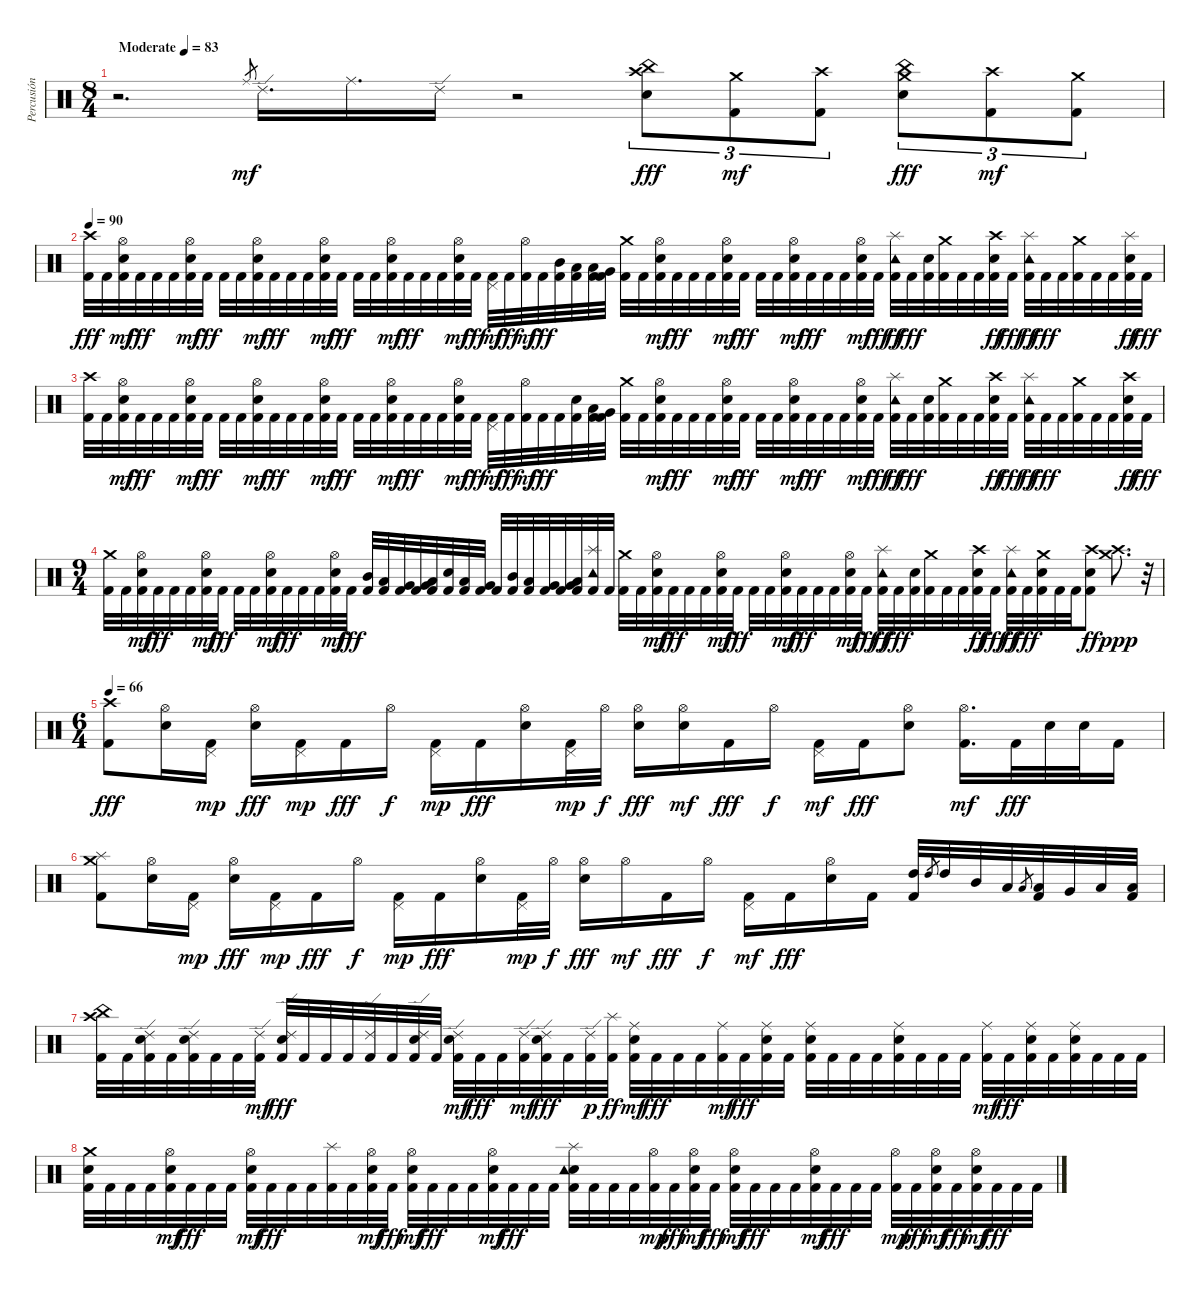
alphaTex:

\track ("Percusión" "Percusión") {instrument percussion}
\staff {score}
\articulation defaults
\ts (8 4)
\tempo (83 "Moderate")
\clef neutral
\ks c
r.2{d dy mf} "Ride (middle)".8{gr} "Ride (edge) 2".16{d} "Ride (middle)".16{d} "Ride (edge) 2".16 r.2 ("Electric Snare (hit)" "Crash high (hit)" "China (hit)").8{tu (3 2) dy fff} ("Kick (hit) 2" "Crash medium (hit)").8{tu (3 2) dy mf} ("Kick (hit) 2" "Crash high (hit)").8{tu (3 2)} ("Electric Snare (hit)" "Crash medium (hit)" "China (hit)").8{tu (3 2) dy fff} ("Kick (hit) 2" "Crash high (hit)").8{tu (3 2) dy mf} ("Kick (hit) 2" "Crash medium (hit)").8{tu (3 2)} |
\tempo 90
("Kick (hit) 2" "Crash high (hit)").32{dy fff} "Kick (hit) 2".32 ("Kick (hit) 2" "Electric Snare (hit)" "Hi-Hat (open)").32{dy mf} "Kick (hit) 2".32{dy fff} "Kick (hit) 2".32 "Kick (hit) 2".32 ("Kick (hit) 2" "Electric Snare (hit)" "Hi-Hat (open)").32{dy mf} "Kick (hit) 2".32{dy fff} "Kick (hit) 2".32 "Kick (hit) 2".32 ("Kick (hit) 2" "Electric Snare (hit)" "Hi-Hat (open)").32{dy mf} "Kick (hit) 2".32{dy fff} "Kick (hit) 2".32 "Kick (hit) 2".32 ("Kick (hit) 2" "Electric Snare (hit)" "Hi-Hat (open)").32{dy mf} "Kick (hit) 2".32{dy fff} "Kick (hit) 2".32 "Kick (hit) 2".32 ("Kick (hit) 2" "Electric Snare (hit)" "Hi-Hat (open)").32{dy mf} "Kick (hit) 2".32{dy fff} "Kick (hit) 2".32 "Kick (hit) 2".32 ("Kick (hit) 2" "Electric Snare (hit)" "Hi-Hat (open)").32{dy mf} "Kick (hit) 2".32{dy fff} ("Kick (hit) 2" "Pedal Hi-Hat (hit)").32{dy mf} "Kick (hit) 2".32{dy fff} ("Kick (hit) 2" "Hi-Hat (open)").32{dy mf} "Kick (hit) 2".32{dy fff} ("Kick (hit) 2" "Mid Tom (hit)").32 ("Kick (hit) 2" "Low Tom (hit)").32 ("Kick (hit) 2" "Low Tom (hit)").32 ("Kick (hit) 2" "Very Low Tom (hit)").32 ("Kick (hit) 2" "Crash medium (hit)").32 "Kick (hit) 2".32 ("Kick (hit) 2" "Electric Snare (hit)" "Hi-Hat (open)").32{dy mf} "Kick (hit) 2".32{dy fff} "Kick (hit) 2".32 "Kick (hit) 2".32 ("Kick (hit) 2" "Electric Snare (hit)" "Hi-Hat (open)").32{dy mf} "Kick (hit) 2".32{dy fff} "Kick (hit) 2".32 "Kick (hit) 2".32 ("Kick (hit) 2" "Electric Snare (hit)" "Hi-Hat (open)").32{dy mf} "Kick (hit) 2".32{dy fff} "Kick (hit) 2".32 "Kick (hit) 2".32 ("Kick (hit) 2" "Electric Snare (hit)" "Hi-Hat (open)").32{dy mf} "Kick (hit) 2".32{dy fff} ("Kick (hit) 2" "Splash (hit)" "Tambourine (hit)").32{dy ff} "Kick (hit) 2".32{dy fff} ("Kick (hit) 2" "Electric Snare (hit)").32 ("Kick (hit) 2" "Crash medium (hit)").32 "Kick (hit) 2".32 "Kick (hit) 2".32 ("Kick (hit) 2" "Electric Snare (hit)" "Crash high (hit)").32{dy ff} "Kick (hit) 2".32{dy fff} ("Kick (hit) 2" "Splash (hit)" "Tambourine (hit)").32{dy ff} "Kick (hit) 2".32{dy fff} "Kick (hit) 2".32 ("Kick (hit) 2" "Crash medium (hit)").32 "Kick (hit) 2".32 "Kick (hit) 2".32 ("Kick (hit) 2" "Electric Snare (hit)" "Splash (hit)").32{dy ff} "Kick (hit) 2".32{dy fff} |
("Kick (hit) 2" "Crash high (hit)").32 "Kick (hit) 2".32 ("Kick (hit) 2" "Electric Snare (hit)" "Hi-Hat (open)").32{dy mf} "Kick (hit) 2".32{dy fff} "Kick (hit) 2".32 "Kick (hit) 2".32 ("Kick (hit) 2" "Electric Snare (hit)" "Hi-Hat (open)").32{dy mf} "Kick (hit) 2".32{dy fff} "Kick (hit) 2".32 "Kick (hit) 2".32 ("Kick (hit) 2" "Electric Snare (hit)" "Hi-Hat (open)").32{dy mf} "Kick (hit) 2".32{dy fff} "Kick (hit) 2".32 "Kick (hit) 2".32 ("Kick (hit) 2" "Electric Snare (hit)" "Hi-Hat (open)").32{dy mf} "Kick (hit) 2".32{dy fff} "Kick (hit) 2".32 "Kick (hit) 2".32 ("Kick (hit) 2" "Electric Snare (hit)" "Hi-Hat (open)").32{dy mf} "Kick (hit) 2".32{dy fff} "Kick (hit) 2".32 "Kick (hit) 2".32 ("Kick (hit) 2" "Electric Snare (hit)" "Hi-Hat (open)").32{dy mf} "Kick (hit) 2".32{dy fff} ("Kick (hit) 2" "Pedal Hi-Hat (hit)").32{dy mf} "Kick (hit) 2".32{dy fff} ("Kick (hit) 2" "Hi-Hat (open)").32{dy mf} "Kick (hit) 2".32{dy fff} "Kick (hit) 2".32 ("Kick (hit) 2" "Electric Snare (hit)").32 ("Kick (hit) 2" "Low Tom (hit)").32 ("Kick (hit) 2" "Very Low Tom (hit)").32 ("Kick (hit) 2" "Crash medium (hit)").32 "Kick (hit) 2".32 ("Kick (hit) 2" "Electric Snare (hit)" "Hi-Hat (open)").32{dy mf} "Kick (hit) 2".32{dy fff} "Kick (hit) 2".32 "Kick (hit) 2".32 ("Kick (hit) 2" "Electric Snare (hit)" "Hi-Hat (open)").32{dy mf} "Kick (hit) 2".32{dy fff} "Kick (hit) 2".32 "Kick (hit) 2".32 ("Kick (hit) 2" "Electric Snare (hit)" "Hi-Hat (open)").32{dy mf} "Kick (hit) 2".32{dy fff} "Kick (hit) 2".32 "Kick (hit) 2".32 ("Kick (hit) 2" "Electric Snare (hit)" "Hi-Hat (open)").32{dy mf} "Kick (hit) 2".32{dy fff} ("Kick (hit) 2" "Splash (hit)" "Tambourine (hit)").32{dy ff} "Kick (hit) 2".32{dy fff} ("Kick (hit) 2" "Electric Snare (hit)").32 ("Kick (hit) 2" "Crash medium (hit)").32 "Kick (hit) 2".32 "Kick (hit) 2".32 ("Kick (hit) 2" "Electric Snare (hit)" "Crash high (hit)").32{dy ff} "Kick (hit) 2".32{dy fff} ("Kick (hit) 2" "Splash (hit)" "Tambourine (hit)").32{dy ff} "Kick (hit) 2".32{dy fff} "Kick (hit) 2".32 ("Kick (hit) 2" "Crash medium (hit)").32 "Kick (hit) 2".32 "Kick (hit) 2".32 ("Kick (hit) 2" "Electric Snare (hit)" "Crash high (hit)").32{dy ff} "Kick (hit) 2".32{dy fff} |
\ts (9 4)
("Kick (hit) 2" "Crash medium (hit)").32 "Kick (hit) 2".32 ("Kick (hit) 2" "Electric Snare (hit)" "Hi-Hat (open)").32{dy mf} "Kick (hit) 2".32{dy fff} "Kick (hit) 2".32 "Kick (hit) 2".32 ("Kick (hit) 2" "Electric Snare (hit)" "Hi-Hat (open)").32{dy mf} "Kick (hit) 2".32{dy fff} "Kick (hit) 2".32 "Kick (hit) 2".32 ("Kick (hit) 2" "Electric Snare (hit)" "Hi-Hat (open)").32{dy mf} "Kick (hit) 2".32{dy fff} "Kick (hit) 2".32 "Kick (hit) 2".32 ("Kick (hit) 2" "Electric Snare (hit)" "Hi-Hat (open)").32{dy mf} "Kick (hit) 2".32{dy fff} ("Kick (hit) 2" "Mid Tom (hit)").32 ("Kick (hit) 2" "Low Tom (hit)").32 ("Kick (hit) 2" "Very Low Tom (hit)").32 ("Kick (hit) 2" "Very Low Tom (hit)").32 ("Kick (hit) 2" "Low Floor Tom (hit)").32 ("Kick (hit) 2" "Electric Snare (hit)").32 ("Kick (hit) 2" "Low Tom (hit)").32 ("Kick (hit) 2" "Very Low Tom (hit)").32 "Kick (hit) 2".32 ("Kick (hit) 2" "Mid Tom (hit)").32 ("Kick (hit) 2" "Low Tom (hit)").32 ("Kick (hit) 2" "Very Low Tom (hit)").32 ("Kick (hit) 2" "Very Low Tom (hit)").32 ("Kick (hit) 2" "Low Floor Tom (hit)").32 ("Kick (hit) 2" "Splash (hit)" "Tambourine (hit)").32 "Kick (hit) 2".32 ("Kick (hit) 2" "Crash medium (hit)").32 "Kick (hit) 2".32 ("Kick (hit) 2" "Electric Snare (hit)" "Hi-Hat (open)").32{dy mf} "Kick (hit) 2".32{dy fff} "Kick (hit) 2".32 "Kick (hit) 2".32 ("Kick (hit) 2" "Electric Snare (hit)" "Hi-Hat (open)").32{dy mf} "Kick (hit) 2".32{dy fff} "Kick (hit) 2".32 "Kick (hit) 2".32 ("Kick (hit) 2" "Electric Snare (hit)" "Hi-Hat (open)").32{dy mf} "Kick (hit) 2".32{dy fff} "Kick (hit) 2".32 "Kick (hit) 2".32 ("Kick (hit) 2" "Electric Snare (hit)" "Hi-Hat (open)").32{dy mf} "Kick (hit) 2".32{dy fff} ("Kick (hit) 2" "Splash (hit)" "Tambourine (hit)").32{dy ff} "Kick (hit) 2".32{dy fff} ("Kick (hit) 2" "Electric Snare (hit)").32 ("Kick (hit) 2" "Crash medium (hit)").32 "Kick (hit) 2".32 "Kick (hit) 2".32 ("Kick (hit) 2" "Electric Snare (hit)" "Crash high (hit)").32{dy ff} "Kick (hit) 2".32{dy fff} ("Kick (hit) 2" "Splash (hit)" "Tambourine (hit)").32{dy ff} "Kick (hit) 2".32{dy fff} ("Kick (hit) 2" "Electric Snare (hit)" "Crash medium (hit)").32 "Kick (hit) 2".32 "Kick (hit) 2".32 ("Kick (hit) 2" "Electric Snare (hit)" "Crash high (hit)").8{dy ff} ("Crash high (hit)" "Crash medium (hit)").8{d dy ppp} r.32 |
\ts (6 4)
\tempo 66
("Kick (hit) 2" "Crash high (hit)").8{dy fff} ("Electric Snare (hit)" "Hi-Hat (open)").16 ("Kick (hit) 2" "Pedal Hi-Hat (hit)").16{dy mp} ("Electric Snare (hit)" "Hi-Hat (open)").16{dy fff} ("Kick (hit) 2" "Pedal Hi-Hat (hit)").16{dy mp} "Kick (hit) 2".16{dy fff} "Hi-Hat (open)".16{dy f} ("Kick (hit) 2" "Pedal Hi-Hat (hit)").16{dy mp} "Kick (hit) 2".16{dy fff} ("Electric Snare (hit)" "Hi-Hat (open)").16 ("Kick (hit) 2" "Pedal Hi-Hat (hit)").32{dy mp} "Hi-Hat (open)".32{dy f} ("Electric Snare (hit)" "Hi-Hat (open)").16{dy fff} ("Electric Snare (hit)" "Hi-Hat (open)").16{dy mf} "Kick (hit) 2".16{dy fff} "Hi-Hat (open)".16{dy f} ("Kick (hit) 2" "Pedal Hi-Hat (hit)").16{dy mf} "Kick (hit) 2".16{dy fff} ("Electric Snare (hit)" "Hi-Hat (open)").8 ("Kick (hit) 2" "Hi-Hat (open)").16{d dy mf} "Kick (hit) 2".32{dy fff} "Electric Snare (hit)".32 "Electric Snare (hit)".32 "Kick (hit) 2".16 |
("Kick (hit) 2" "Crash medium (hit)" "Splash (hit)").8 ("Electric Snare (hit)" "Hi-Hat (open)").16 ("Kick (hit) 2" "Pedal Hi-Hat (hit)").16{dy mp} ("Electric Snare (hit)" "Hi-Hat (open)").16{dy fff} ("Kick (hit) 2" "Pedal Hi-Hat (hit)").16{dy mp} "Kick (hit) 2".16{dy fff} "Hi-Hat (open)".16{dy f} ("Kick (hit) 2" "Pedal Hi-Hat (hit)").16{dy mp} "Kick (hit) 2".16{dy fff} ("Electric Snare (hit)" "Hi-Hat (open)").16 ("Kick (hit) 2" "Pedal Hi-Hat (hit)").32{dy mp} "Hi-Hat (open)".32{dy f} ("Electric Snare (hit)" "Hi-Hat (open)").16{dy fff} "Hi-Hat (open)".16{dy mf} "Kick (hit) 2".16{dy fff} "Hi-Hat (open)".16{dy f} ("Kick (hit) 2" "Pedal Hi-Hat (hit)").16{dy mf} "Kick (hit) 2".16{dy fff} ("Electric Snare (hit)" "Hi-Hat (open)").16 "Kick (hit) 2".16 ("Kick (hit) 2" "High Tom (hit)").32 "High Tom (hit)".8{gr} "High Tom (hit)".32 "Mid Tom (hit)".32 "Low Tom (hit)".32 "Low Tom (hit)".8{gr} ("Kick (hit) 2" "Low Tom (hit)").32 "Very Low Tom (hit)".32 "Low Floor Tom (hit)".32 ("Kick (hit) 2" "Low Floor Tom (hit)").32 |
("Kick (hit) 2" "Crash high (hit)" "China (hit)").32 "Kick (hit) 2".32 ("Kick (hit) 2" "Electric Snare (hit)" "Ride (edge) 2").32 "Kick (hit) 2".32 ("Kick (hit) 2" "Electric Snare (hit)" "Ride (edge) 2").32 "Kick (hit) 2".32 "Kick (hit) 2".32 ("Kick (hit) 2" "Ride (edge) 2").32{dy mf} ("Kick (hit) 2" "Electric Snare (hit)" "Ride (edge) 2").32{dy fff} "Kick (hit) 2".32 "Kick (hit) 2".32 "Kick (hit) 2".32 ("Kick (hit) 2" "Ride (edge) 2").32 "Kick (hit) 2".32 ("Kick (hit) 2" "Electric Snare (hit)" "Ride (edge) 2").32 "Kick (hit) 2".32 ("Kick (hit) 2" "Electric Snare (hit)" "Ride (edge) 2").32{dy mf} "Kick (hit) 2".32{dy fff} "Kick (hit) 2".32 ("Kick (hit) 2" "Ride (edge) 2").32{dy mf} ("Kick (hit) 2" "Electric Snare (hit)" "Ride (edge) 2").32{dy fff} "Kick (hit) 2".32 ("Kick (hit) 2" "Ride (edge) 2").32{dy p} ("Kick (hit) 2" "Splash (hit)").32{dy ff} ("Kick (hit) 2" "Electric Snare (hit)" "Ride (middle)").32{dy mf} "Kick (hit) 2".32{dy fff} "Kick (hit) 2".32 "Kick (hit) 2".32 ("Kick (hit) 2" "Ride (middle)").32{dy mf} "Kick (hit) 2".32{dy fff} ("Kick (hit) 2" "Electric Snare (hit)" "Ride (middle)").32 "Kick (hit) 2".32 ("Kick (hit) 2" "Electric Snare (hit)" "Ride (middle)").32 "Kick (hit) 2".32 "Kick (hit) 2".32 "Kick (hit) 2".32 ("Kick (hit) 2" "Electric Snare (hit)" "Ride (middle)").32 "Kick (hit) 2".32 "Kick (hit) 2".32 "Kick (hit) 2".32 ("Kick (hit) 2" "Ride (middle)").32{dy mf} "Kick (hit) 2".32{dy fff} ("Kick (hit) 2" "Electric Snare (hit)" "Ride (middle)").32 "Kick (hit) 2".32 ("Kick (hit) 2" "Electric Snare (hit)" "Ride (middle)").32 "Kick (hit) 2".32 "Kick (hit) 2".32 "Kick (hit) 2".32 |
("Kick (hit) 2" "Electric Snare (hit)" "Crash medium (hit)").32 "Kick (hit) 2".32 "Kick (hit) 2".32 "Kick (hit) 2".32 ("Kick (hit) 2" "Electric Snare (hit)" "Hi-Hat (open)").32{dy mf} "Kick (hit) 2".32{dy fff} "Kick (hit) 2".32 "Kick (hit) 2".32 ("Kick (hit) 2" "Electric Snare (hit)" "Hi-Hat (open)").32{dy mf} "Kick (hit) 2".32{dy fff} "Kick (hit) 2".32 "Kick (hit) 2".32 ("Kick (hit) 2" "Splash (hit)").32 "Kick (hit) 2".32 ("Kick (hit) 2" "Electric Snare (hit)" "Hi-Hat (open)").32{dy mf} "Kick (hit) 2".32{dy fff} ("Kick (hit) 2" "Electric Snare (hit)" "Hi-Hat (open)").32{dy mf} "Kick (hit) 2".32{dy fff} "Kick (hit) 2".32 "Kick (hit) 2".32 ("Kick (hit) 2" "Electric Snare (hit)" "Hi-Hat (open)").32{dy mf} "Kick (hit) 2".32{dy fff} "Kick (hit) 2".32 "Kick (hit) 2".32 ("Kick (hit) 2" "Electric Snare (hit)" "Splash (hit)" "Tambourine (hit)").32 "Kick (hit) 2".32 "Kick (hit) 2".32 "Kick (hit) 2".32 ("Kick (hit) 2" "Hi-Hat (open)").32{dy mp} "Kick (hit) 2".32{dy fff} ("Kick (hit) 2" "Electric Snare (hit)" "Hi-Hat (open)").32{dy mf} "Kick (hit) 2".32{dy fff} ("Kick (hit) 2" "Electric Snare (hit)" "Hi-Hat (open)").32{dy mf} "Kick (hit) 2".32{dy fff} "Kick (hit) 2".32 "Kick (hit) 2".32 ("Kick (hit) 2" "Electric Snare (hit)" "Hi-Hat (open)").32{dy mf} "Kick (hit) 2".32{dy fff} "Kick (hit) 2".32 "Kick (hit) 2".32 ("Kick (hit) 2" "Hi-Hat (open)").32{dy mp} "Kick (hit) 2".32{dy fff} ("Kick (hit) 2" "Electric Snare (hit)" "Hi-Hat (open)").32{dy mf} "Kick (hit) 2".32{dy fff} ("Kick (hit) 2" "Electric Snare (hit)" "Hi-Hat (open)").32{dy mf} "Kick (hit) 2".32{dy fff} "Kick (hit) 2".32 "Kick (hit) 2".32
